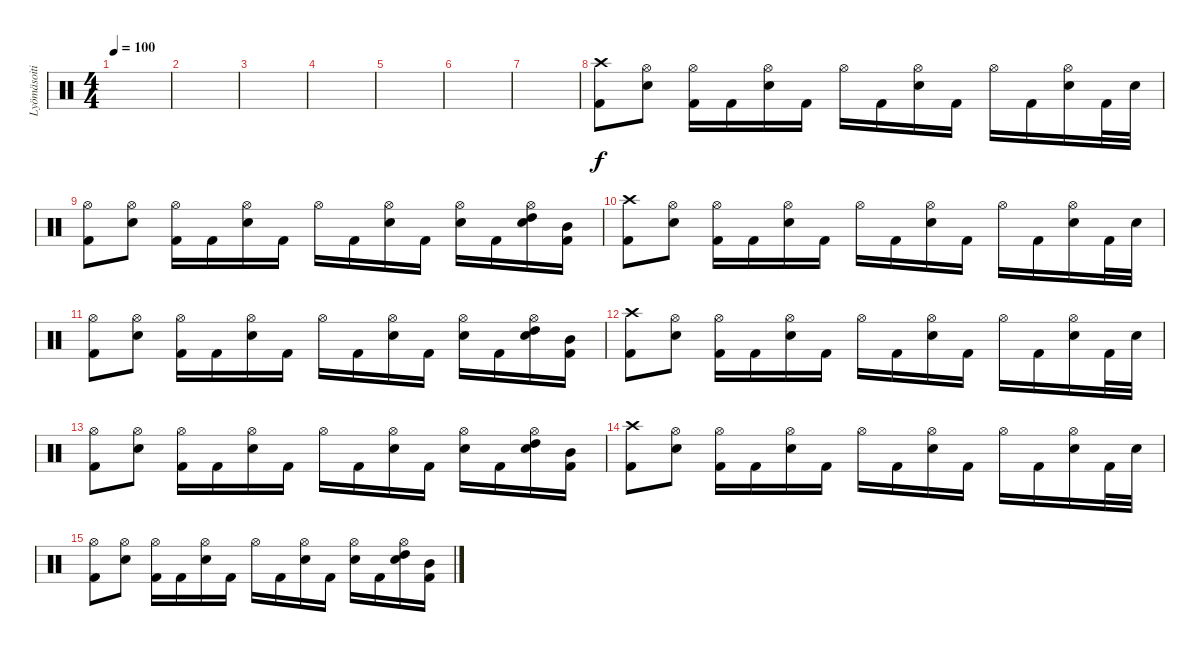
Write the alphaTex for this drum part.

\track ("Lyömäsoitin" "Lyömäsoiti") {instrument percussion}
\staff {score}
\articulation defaults
\ts (4 4)
\tempo 100
\clef neutral
\ks c
|
|
|
|
|
|
|
("Crash high (hit)" "Kick (hit) 2").8 ("Hi-Hat (open)" "Snare (hit) 2").8 ("Hi-Hat (open)" "Kick (hit) 2").16 "Kick (hit) 2".16 ("Hi-Hat (open)" "Snare (hit) 2").16 "Kick (hit) 2".16 "Hi-Hat (open)".16 "Kick (hit) 2".16 ("Hi-Hat (open)" "Snare (hit) 2").16 "Kick (hit) 2".16 "Hi-Hat (open)".16 "Kick (hit) 2".16 ("Hi-Hat (open)" "Snare (hit) 2").16 "Kick (hit) 2".32 "Snare (hit) 2".32 |
("Hi-Hat (open)" "Kick (hit) 2").8 ("Hi-Hat (open)" "Snare (hit) 2").8 ("Hi-Hat (open)" "Kick (hit) 2").16 "Kick (hit) 2".16 ("Hi-Hat (open)" "Snare (hit) 2").16 "Kick (hit) 2".16 "Hi-Hat (open)".16 "Kick (hit) 2".16 ("Hi-Hat (open)" "Snare (hit) 2").16 "Kick (hit) 2".16 ("Hi-Hat (open)" "Snare (hit) 2").16 "Kick (hit) 2".16 ("Hi-Hat (open)" "High Tom (hit)" "Snare (hit) 2").16 ("Mid Tom (hit)" "Kick (hit) 2").16 |
("Crash high (hit)" "Kick (hit) 2").8 ("Hi-Hat (open)" "Snare (hit) 2").8 ("Hi-Hat (open)" "Kick (hit) 2").16 "Kick (hit) 2".16 ("Hi-Hat (open)" "Snare (hit) 2").16 "Kick (hit) 2".16 "Hi-Hat (open)".16 "Kick (hit) 2".16 ("Hi-Hat (open)" "Snare (hit) 2").16 "Kick (hit) 2".16 "Hi-Hat (open)".16 "Kick (hit) 2".16 ("Hi-Hat (open)" "Snare (hit) 2").16 "Kick (hit) 2".32 "Snare (hit) 2".32 |
("Hi-Hat (open)" "Kick (hit) 2").8 ("Hi-Hat (open)" "Snare (hit) 2").8 ("Hi-Hat (open)" "Kick (hit) 2").16 "Kick (hit) 2".16 ("Hi-Hat (open)" "Snare (hit) 2").16 "Kick (hit) 2".16 "Hi-Hat (open)".16 "Kick (hit) 2".16 ("Hi-Hat (open)" "Snare (hit) 2").16 "Kick (hit) 2".16 ("Hi-Hat (open)" "Snare (hit) 2").16 "Kick (hit) 2".16 ("Hi-Hat (open)" "High Tom (hit)" "Snare (hit) 2").16 ("Mid Tom (hit)" "Kick (hit) 2").16 |
("Crash high (hit)" "Kick (hit) 2").8 ("Hi-Hat (open)" "Snare (hit) 2").8 ("Hi-Hat (open)" "Kick (hit) 2").16 "Kick (hit) 2".16 ("Hi-Hat (open)" "Snare (hit) 2").16 "Kick (hit) 2".16 "Hi-Hat (open)".16 "Kick (hit) 2".16 ("Hi-Hat (open)" "Snare (hit) 2").16 "Kick (hit) 2".16 "Hi-Hat (open)".16 "Kick (hit) 2".16 ("Hi-Hat (open)" "Snare (hit) 2").16 "Kick (hit) 2".32 "Snare (hit) 2".32 |
("Hi-Hat (open)" "Kick (hit) 2").8 ("Hi-Hat (open)" "Snare (hit) 2").8 ("Hi-Hat (open)" "Kick (hit) 2").16 "Kick (hit) 2".16 ("Hi-Hat (open)" "Snare (hit) 2").16 "Kick (hit) 2".16 "Hi-Hat (open)".16 "Kick (hit) 2".16 ("Hi-Hat (open)" "Snare (hit) 2").16 "Kick (hit) 2".16 ("Hi-Hat (open)" "Snare (hit) 2").16 "Kick (hit) 2".16 ("Hi-Hat (open)" "High Tom (hit)" "Snare (hit) 2").16 ("Mid Tom (hit)" "Kick (hit) 2").16 |
("Crash high (hit)" "Kick (hit) 2").8 ("Hi-Hat (open)" "Snare (hit) 2").8 ("Hi-Hat (open)" "Kick (hit) 2").16 "Kick (hit) 2".16 ("Hi-Hat (open)" "Snare (hit) 2").16 "Kick (hit) 2".16 "Hi-Hat (open)".16 "Kick (hit) 2".16 ("Hi-Hat (open)" "Snare (hit) 2").16 "Kick (hit) 2".16 "Hi-Hat (open)".16 "Kick (hit) 2".16 ("Hi-Hat (open)" "Snare (hit) 2").16 "Kick (hit) 2".32 "Snare (hit) 2".32 |
("Hi-Hat (open)" "Kick (hit) 2").8 ("Hi-Hat (open)" "Snare (hit) 2").8 ("Hi-Hat (open)" "Kick (hit) 2").16 "Kick (hit) 2".16 ("Hi-Hat (open)" "Snare (hit) 2").16 "Kick (hit) 2".16 "Hi-Hat (open)".16 "Kick (hit) 2".16 ("Hi-Hat (open)" "Snare (hit) 2").16 "Kick (hit) 2".16 ("Hi-Hat (open)" "Snare (hit) 2").16 "Kick (hit) 2".16 ("Hi-Hat (open)" "High Tom (hit)" "Snare (hit) 2").16 ("Mid Tom (hit)" "Kick (hit) 2").16
